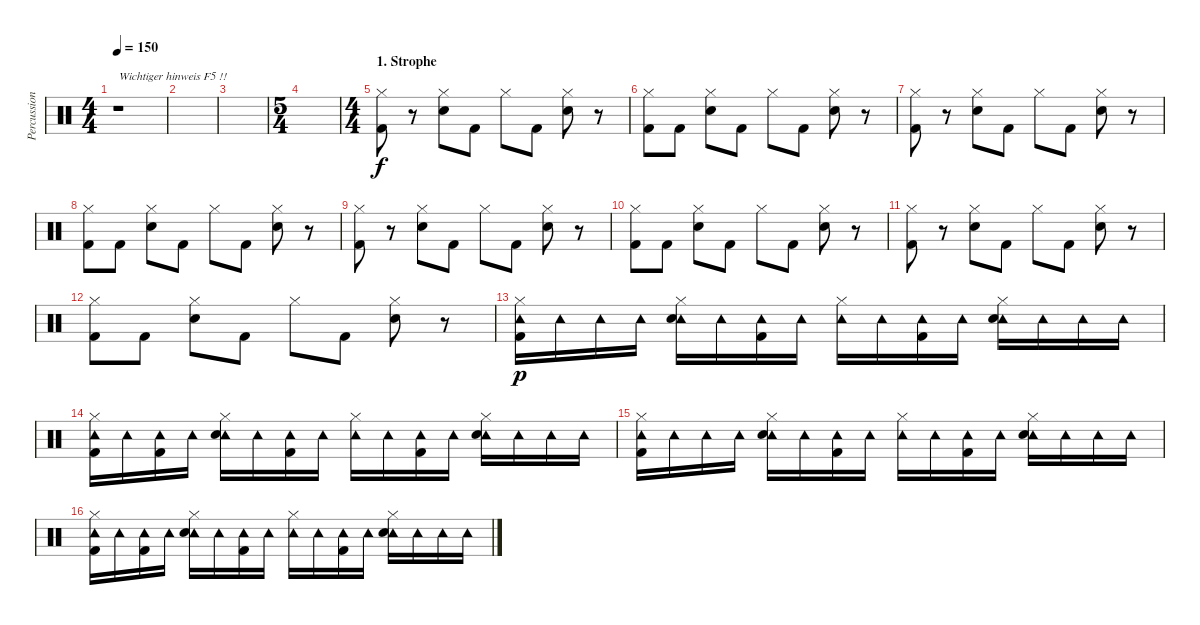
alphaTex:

\track ("Percussion" "Percussion") {instrument percussion}
\staff {score}
\articulation defaults
\ts (4 4)
\tempo 150
\clef neutral
\ks c
r.1{txt "Wichtiger hinweis F5 !!" dy f} |
|
|
\ts (5 4)
|
\ts (4 4)
\section ("" "1. Strophe")
("Hi-Hat (closed)" "Kick (hit) 2").8 r.8 ("Hi-Hat (closed)" "Electric Snare (hit)").8 "Kick (hit) 2".8 "Hi-Hat (closed)".8 "Kick (hit) 2".8 ("Hi-Hat (closed)" "Electric Snare (hit)").8 r.8 |
("Hi-Hat (closed)" "Kick (hit) 2").8 "Kick (hit) 2".8 ("Hi-Hat (closed)" "Electric Snare (hit)").8 "Kick (hit) 2".8 "Hi-Hat (closed)".8 "Kick (hit) 2".8 ("Hi-Hat (closed)" "Electric Snare (hit)").8 r.8 |
("Hi-Hat (closed)" "Kick (hit) 2").8 r.8 ("Hi-Hat (closed)" "Electric Snare (hit)").8 "Kick (hit) 2".8 "Hi-Hat (closed)".8 "Kick (hit) 2".8 ("Hi-Hat (closed)" "Electric Snare (hit)").8 r.8 |
("Hi-Hat (closed)" "Kick (hit) 2").8 "Kick (hit) 2".8 ("Hi-Hat (closed)" "Electric Snare (hit)").8 "Kick (hit) 2".8 "Hi-Hat (closed)".8 "Kick (hit) 2".8 ("Hi-Hat (closed)" "Electric Snare (hit)").8 r.8 |
("Hi-Hat (closed)" "Kick (hit) 2").8 r.8 ("Hi-Hat (closed)" "Electric Snare (hit)").8 "Kick (hit) 2".8 "Hi-Hat (closed)".8 "Kick (hit) 2".8 ("Hi-Hat (closed)" "Electric Snare (hit)").8 r.8 |
("Hi-Hat (closed)" "Kick (hit) 2").8 "Kick (hit) 2".8 ("Hi-Hat (closed)" "Electric Snare (hit)").8 "Kick (hit) 2".8 "Hi-Hat (closed)".8 "Kick (hit) 2".8 ("Hi-Hat (closed)" "Electric Snare (hit)").8 r.8 |
("Hi-Hat (closed)" "Kick (hit) 2").8 r.8 ("Hi-Hat (closed)" "Electric Snare (hit)").8 "Kick (hit) 2".8 "Hi-Hat (closed)".8 "Kick (hit) 2".8 ("Hi-Hat (closed)" "Electric Snare (hit)").8 r.8 |
("Hi-Hat (closed)" "Kick (hit) 2").8 "Kick (hit) 2".8 ("Hi-Hat (closed)" "Electric Snare (hit)").8 "Kick (hit) 2".8 "Hi-Hat (closed)".8 "Kick (hit) 2".8 ("Hi-Hat (closed)" "Electric Snare (hit)").8 r.8 |
("Hi-Hat (closed)" "Tambourine (hit)" "Kick (hit) 2").16{dy p} "Tambourine (hit)".16 "Tambourine (hit)".16 "Tambourine (hit)".16 ("Hi-Hat (closed)" "Tambourine (hit)" "Electric Snare (hit)").16 "Tambourine (hit)".16 ("Tambourine (hit)" "Kick (hit) 2").16 "Tambourine (hit)".16 ("Hi-Hat (closed)" "Tambourine (hit)").16 "Tambourine (hit)".16 ("Tambourine (hit)" "Kick (hit) 2").16 "Tambourine (hit)".16 ("Hi-Hat (closed)" "Tambourine (hit)" "Electric Snare (hit)").16 "Tambourine (hit)".16 "Tambourine (hit)".16 "Tambourine (hit)".16 |
("Hi-Hat (closed)" "Tambourine (hit)" "Kick (hit) 2").16 "Tambourine (hit)".16 ("Tambourine (hit)" "Kick (hit) 2").16 "Tambourine (hit)".16 ("Hi-Hat (closed)" "Tambourine (hit)" "Electric Snare (hit)").16 "Tambourine (hit)".16 ("Tambourine (hit)" "Kick (hit) 2").16 "Tambourine (hit)".16 ("Hi-Hat (closed)" "Tambourine (hit)").16 "Tambourine (hit)".16 ("Tambourine (hit)" "Kick (hit) 2").16 "Tambourine (hit)".16 ("Hi-Hat (closed)" "Tambourine (hit)" "Electric Snare (hit)").16 "Tambourine (hit)".16 "Tambourine (hit)".16 "Tambourine (hit)".16 |
("Hi-Hat (closed)" "Tambourine (hit)" "Kick (hit) 2").16 "Tambourine (hit)".16 "Tambourine (hit)".16 "Tambourine (hit)".16 ("Hi-Hat (closed)" "Tambourine (hit)" "Electric Snare (hit)").16 "Tambourine (hit)".16 ("Tambourine (hit)" "Kick (hit) 2").16 "Tambourine (hit)".16 ("Hi-Hat (closed)" "Tambourine (hit)").16 "Tambourine (hit)".16 ("Tambourine (hit)" "Kick (hit) 2").16 "Tambourine (hit)".16 ("Hi-Hat (closed)" "Tambourine (hit)" "Electric Snare (hit)").16 "Tambourine (hit)".16 "Tambourine (hit)".16 "Tambourine (hit)".16 |
("Hi-Hat (closed)" "Tambourine (hit)" "Kick (hit) 2").16 "Tambourine (hit)".16 ("Tambourine (hit)" "Kick (hit) 2").16 "Tambourine (hit)".16 ("Hi-Hat (closed)" "Tambourine (hit)" "Electric Snare (hit)").16 "Tambourine (hit)".16 ("Tambourine (hit)" "Kick (hit) 2").16 "Tambourine (hit)".16 ("Hi-Hat (closed)" "Tambourine (hit)").16 "Tambourine (hit)".16 ("Tambourine (hit)" "Kick (hit) 2").16 "Tambourine (hit)".16 ("Hi-Hat (closed)" "Tambourine (hit)" "Electric Snare (hit)").16 "Tambourine (hit)".16 "Tambourine (hit)".16 "Tambourine (hit)".16
